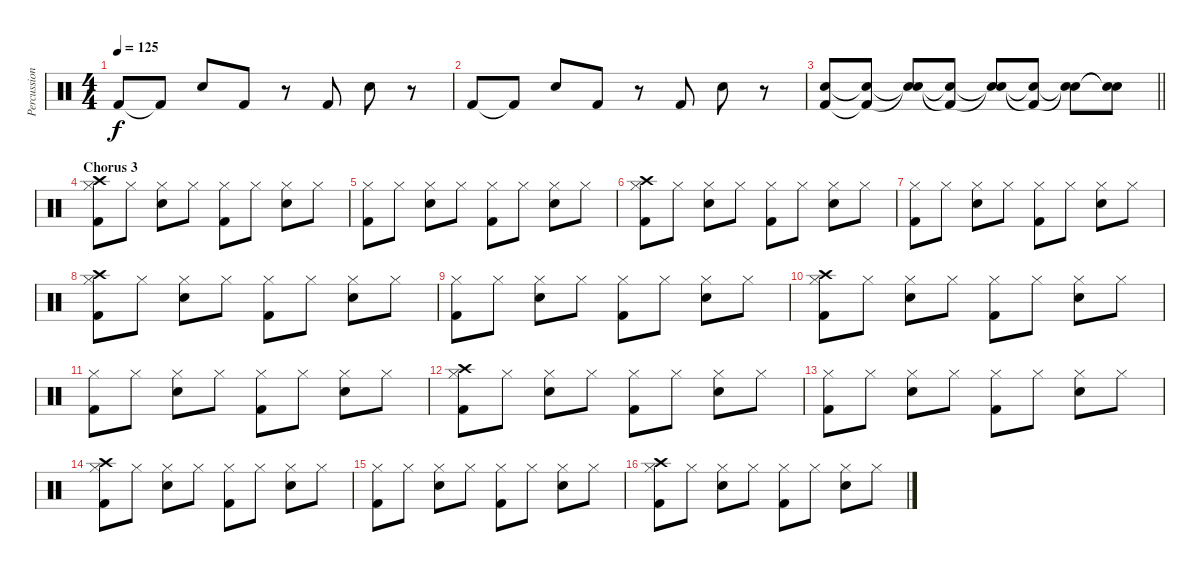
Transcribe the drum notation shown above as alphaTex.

\track ("Percussion" "Percussion") {instrument percussion}
\staff {score}
\articulation defaults
\ts (4 4)
\tempo 125
\clef neutral
\ks c "Kick (hit) 2".8{dy f} "Kick (hit) 2"{t}.8 "Snare (hit) 2".8 "Kick (hit) 2".8
r.8 "Kick (hit) 2".8 "Snare (hit) 2".8 r.8 |
"Kick (hit) 2".8 "Kick (hit) 2"{t}.8 "Snare (hit) 2".8 "Kick (hit) 2".8 r.8 "Kick (hit) 2".8 "Snare (hit) 2".8 r.8 |
\barLineRight lightlight
("Snare (hit) 2" "Kick (hit) 2").8{volume 0} ("Snare (hit)"{t} "Kick (hit) 2"{t}).8 ("Snare (hit)"{t} "Snare (hit) 2"{t}).8 ("Snare (hit)"{t} "Kick (hit) 2"{t}).8 ("Snare (hit)"{t} "Snare (hit)"{t}).8 ("Snare (hit)"{t} "Kick (hit) 2"{t}).8 ("Snare (hit)"{t} "Snare (hit) 2"{t}).8 ("Snare (hit)"{t} "Snare (hit)"{t}).8 |
\section ("" "Chorus 3")
("Crash high (hit)" "Hi-Hat (closed)" "Kick (hit) 2").8{volume 16} "Hi-Hat (closed)".8 ("Hi-Hat (closed)" "Snare (hit) 2").8 "Hi-Hat (closed)".8 ("Hi-Hat (closed)" "Kick (hit) 2").8 "Hi-Hat (closed)".8 ("Hi-Hat (closed)" "Snare (hit) 2").8 "Hi-Hat (closed)".8 |
("Hi-Hat (closed)" "Kick (hit) 2").8 "Hi-Hat (closed)".8 ("Hi-Hat (closed)" "Snare (hit) 2").8 "Hi-Hat (closed)".8 ("Hi-Hat (closed)" "Kick (hit) 2").8 "Hi-Hat (closed)".8 ("Hi-Hat (closed)" "Snare (hit) 2").8 "Hi-Hat (closed)".8 |
("Crash high (hit)" "Hi-Hat (closed)" "Kick (hit) 2").8 "Hi-Hat (closed)".8 ("Hi-Hat (closed)" "Snare (hit) 2").8 "Hi-Hat (closed)".8 ("Hi-Hat (closed)" "Kick (hit) 2").8 "Hi-Hat (closed)".8 ("Hi-Hat (closed)" "Snare (hit) 2").8 "Hi-Hat (closed)".8 |
("Hi-Hat (closed)" "Kick (hit) 2").8 "Hi-Hat (closed)".8 ("Hi-Hat (closed)" "Snare (hit) 2").8 "Hi-Hat (closed)".8 ("Hi-Hat (closed)" "Kick (hit) 2").8 "Hi-Hat (closed)".8 ("Hi-Hat (closed)" "Snare (hit) 2").8 "Hi-Hat (closed)".8 |
("Crash high (hit)" "Hi-Hat (closed)" "Kick (hit) 2").8 "Hi-Hat (closed)".8 ("Hi-Hat (closed)" "Snare (hit) 2").8 "Hi-Hat (closed)".8 ("Hi-Hat (closed)" "Kick (hit) 2").8 "Hi-Hat (closed)".8 ("Hi-Hat (closed)" "Snare (hit) 2").8 "Hi-Hat (closed)".8 |
("Hi-Hat (closed)" "Kick (hit) 2").8 "Hi-Hat (closed)".8 ("Hi-Hat (closed)" "Snare (hit) 2").8 "Hi-Hat (closed)".8 ("Hi-Hat (closed)" "Kick (hit) 2").8 "Hi-Hat (closed)".8 ("Hi-Hat (closed)" "Snare (hit) 2").8 "Hi-Hat (closed)".8 |
("Crash high (hit)" "Hi-Hat (closed)" "Kick (hit) 2").8 "Hi-Hat (closed)".8 ("Hi-Hat (closed)" "Snare (hit) 2").8 "Hi-Hat (closed)".8 ("Hi-Hat (closed)" "Kick (hit) 2").8 "Hi-Hat (closed)".8 ("Hi-Hat (closed)" "Snare (hit) 2").8 "Hi-Hat (closed)".8 |
("Hi-Hat (closed)" "Kick (hit) 2").8 "Hi-Hat (closed)".8 ("Hi-Hat (closed)" "Snare (hit) 2").8 "Hi-Hat (closed)".8 ("Hi-Hat (closed)" "Kick (hit) 2").8 "Hi-Hat (closed)".8 ("Hi-Hat (closed)" "Snare (hit) 2").8 "Hi-Hat (closed)".8 |
("Crash high (hit)" "Hi-Hat (closed)" "Kick (hit) 2").8 "Hi-Hat (closed)".8 ("Hi-Hat (closed)" "Snare (hit) 2").8 "Hi-Hat (closed)".8 ("Hi-Hat (closed)" "Kick (hit) 2").8 "Hi-Hat (closed)".8 ("Hi-Hat (closed)" "Snare (hit) 2").8 "Hi-Hat (closed)".8 |
("Hi-Hat (closed)" "Kick (hit) 2").8 "Hi-Hat (closed)".8 ("Hi-Hat (closed)" "Snare (hit) 2").8 "Hi-Hat (closed)".8 ("Hi-Hat (closed)" "Kick (hit) 2").8 "Hi-Hat (closed)".8 ("Hi-Hat (closed)" "Snare (hit) 2").8 "Hi-Hat (closed)".8 |
("Crash high (hit)" "Hi-Hat (closed)" "Kick (hit) 2").8 "Hi-Hat (closed)".8 ("Hi-Hat (closed)" "Snare (hit) 2").8 "Hi-Hat (closed)".8 ("Hi-Hat (closed)" "Kick (hit) 2").8 "Hi-Hat (closed)".8 ("Hi-Hat (closed)" "Snare (hit) 2").8 "Hi-Hat (closed)".8 |
("Hi-Hat (closed)" "Kick (hit) 2").8 "Hi-Hat (closed)".8 ("Hi-Hat (closed)" "Snare (hit) 2").8 "Hi-Hat (closed)".8 ("Hi-Hat (closed)" "Kick (hit) 2").8 "Hi-Hat (closed)".8 ("Hi-Hat (closed)" "Snare (hit) 2").8 "Hi-Hat (closed)".8 |
("Crash high (hit)" "Hi-Hat (closed)" "Kick (hit) 2").8 "Hi-Hat (closed)".8 ("Hi-Hat (closed)" "Snare (hit) 2").8 "Hi-Hat (closed)".8 ("Hi-Hat (closed)" "Kick (hit) 2").8 "Hi-Hat (closed)".8 ("Hi-Hat (closed)" "Snare (hit) 2").8 "Hi-Hat (closed)".8
